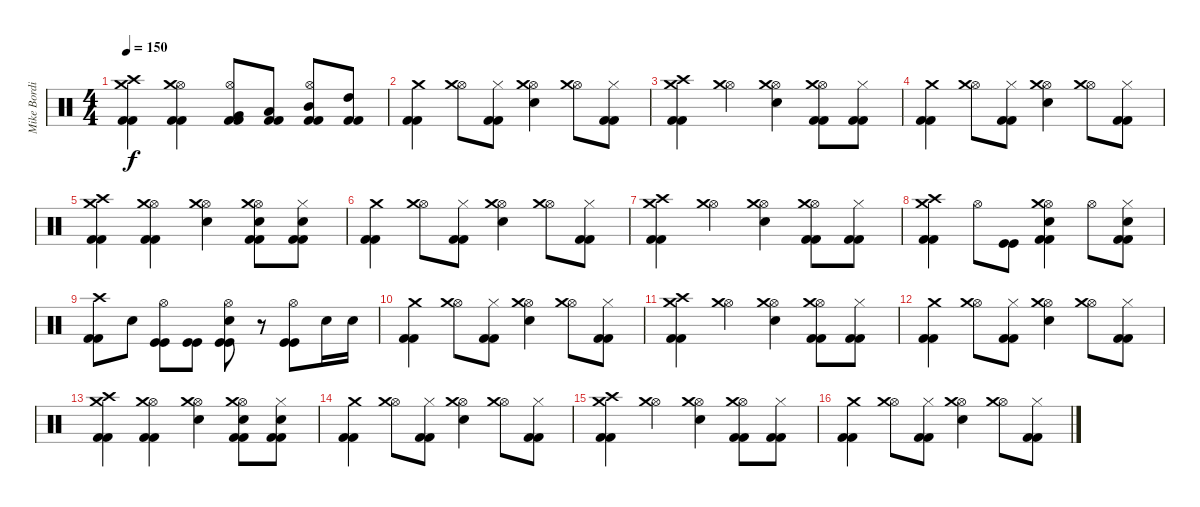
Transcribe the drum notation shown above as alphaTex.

\track ("Mike Bordin" "Mike Bordi") {instrument percussion}
\staff {score}
\articulation defaults
\ts (4 4)
\tempo 150
\clef neutral
\ks c
("Crash high (hit)" "Crash medium (hit)" "Kick (hit) 2" "Kick (hit) 2").4{dy f} ("Hi-Hat (open)" "Crash medium (hit)" "Kick (hit) 2" "Kick (hit) 2").4 ("Hi-Hat (open)" "Very Low Tom (hit)" "Kick (hit) 2" "Kick (hit) 2").8 ("Low Tom (hit)" "Kick (hit) 2" "Kick (hit) 2").8 ("Hi-Hat (open)" "Mid Tom (hit)" "Kick (hit) 2" "Kick (hit) 2").8 ("High Tom (hit)" "Kick (hit) 2" "Kick (hit) 2").8 |
("Crash medium (hit)" "Kick (hit) 2" "Kick (hit) 2").4 ("Hi-Hat (open)" "Crash medium (hit)").8 ("Hi-Hat (closed)" "Kick (hit) 2" "Kick (hit) 2").8 ("Hi-Hat (open)" "Crash medium (hit)" "Electric Snare (hit)").4 ("Hi-Hat (open)" "Crash medium (hit)").8 ("Hi-Hat (closed)" "Kick (hit) 2" "Kick (hit) 2").8 |
("Crash high (hit)" "Crash medium (hit)" "Kick (hit) 2" "Kick (hit) 2").4 ("Hi-Hat (open)" "Crash medium (hit)").4 ("Hi-Hat (open)" "Crash medium (hit)" "Electric Snare (hit)").4 ("Hi-Hat (open)" "Crash medium (hit)" "Kick (hit) 2" "Kick (hit) 2").8 ("Hi-Hat (closed)" "Kick (hit) 2" "Kick (hit) 2").8 |
("Crash medium (hit)" "Kick (hit) 2" "Kick (hit) 2").4 ("Hi-Hat (open)" "Crash medium (hit)").8 ("Hi-Hat (closed)" "Kick (hit) 2" "Kick (hit) 2").8 ("Hi-Hat (open)" "Crash medium (hit)" "Electric Snare (hit)").4 ("Hi-Hat (open)" "Crash medium (hit)").8 ("Hi-Hat (closed)" "Kick (hit) 2" "Kick (hit) 2").8 |
("Crash high (hit)" "Crash medium (hit)" "Kick (hit) 2" "Kick (hit) 2").4 ("Hi-Hat (open)" "Crash medium (hit)" "Kick (hit) 2" "Kick (hit) 2").4 ("Hi-Hat (open)" "Crash medium (hit)" "Electric Snare (hit)").4 ("Hi-Hat (open)" "Crash medium (hit)" "Electric Snare (hit)" "Kick (hit) 2" "Kick (hit) 2").8 ("Hi-Hat (closed)" "Electric Snare (hit)" "Kick (hit) 2" "Kick (hit) 2").8 |
("Crash medium (hit)" "Kick (hit) 2" "Kick (hit) 2").4 ("Hi-Hat (open)" "Crash medium (hit)").8 ("Hi-Hat (closed)" "Kick (hit) 2" "Kick (hit) 2").8 ("Hi-Hat (open)" "Crash medium (hit)" "Electric Snare (hit)").4 ("Hi-Hat (open)" "Crash medium (hit)").8 ("Hi-Hat (closed)" "Kick (hit) 2" "Kick (hit) 2").8 |
("Crash high (hit)" "Crash medium (hit)" "Kick (hit) 2" "Kick (hit) 2").4 ("Hi-Hat (open)" "Crash medium (hit)").4 ("Hi-Hat (open)" "Crash medium (hit)" "Electric Snare (hit)").4 ("Hi-Hat (open)" "Crash medium (hit)" "Kick (hit) 2" "Kick (hit) 2").8 ("Hi-Hat (closed)" "Kick (hit) 2" "Kick (hit) 2").8 |
("Crash high (hit)" "Crash medium (hit)" "Kick (hit) 2" "Kick (hit) 2").4 "Hi-Hat (open)".8 ("Kick (hit)" "Kick (hit)").8 ("Hi-Hat (open)" "Crash medium (hit)" "Electric Snare (hit)" "Kick (hit) 2" "Kick (hit) 2").4 "Hi-Hat (open)".8 ("Hi-Hat (closed)" "Electric Snare (hit)" "Kick (hit) 2" "Kick (hit) 2").8 |
("Crash high (hit)" "Kick (hit) 2" "Kick (hit) 2").8 "Electric Snare (hit)".8 ("Hi-Hat (open)" "Kick (hit)" "Kick (hit)").8 ("Kick (hit)" "Kick (hit)").8 ("Hi-Hat (open)" "Electric Snare (hit)" "Kick (hit)" "Kick (hit)").8 r.8 ("Hi-Hat (open)" "Kick (hit)" "Kick (hit)").8 "Electric Snare (hit)".16 "Electric Snare (hit)".16 |
("Crash medium (hit)" "Kick (hit) 2" "Kick (hit) 2").4 ("Hi-Hat (open)" "Crash medium (hit)").8 ("Hi-Hat (closed)" "Kick (hit) 2" "Kick (hit) 2").8 ("Hi-Hat (open)" "Crash medium (hit)" "Electric Snare (hit)").4 ("Hi-Hat (open)" "Crash medium (hit)").8 ("Hi-Hat (closed)" "Kick (hit) 2" "Kick (hit) 2").8 |
("Crash high (hit)" "Crash medium (hit)" "Kick (hit) 2" "Kick (hit) 2").4 ("Hi-Hat (open)" "Crash medium (hit)").4 ("Hi-Hat (open)" "Crash medium (hit)" "Electric Snare (hit)").4 ("Hi-Hat (open)" "Crash medium (hit)" "Kick (hit) 2" "Kick (hit) 2").8 ("Hi-Hat (closed)" "Kick (hit) 2" "Kick (hit) 2").8 |
("Crash medium (hit)" "Kick (hit) 2" "Kick (hit) 2").4 ("Hi-Hat (open)" "Crash medium (hit)").8 ("Hi-Hat (closed)" "Kick (hit) 2" "Kick (hit) 2").8 ("Hi-Hat (open)" "Crash medium (hit)" "Electric Snare (hit)").4 ("Hi-Hat (open)" "Crash medium (hit)").8 ("Hi-Hat (closed)" "Kick (hit) 2" "Kick (hit) 2").8 |
("Crash high (hit)" "Crash medium (hit)" "Kick (hit) 2" "Kick (hit) 2").4 ("Hi-Hat (open)" "Crash medium (hit)" "Kick (hit) 2" "Kick (hit) 2").4 ("Hi-Hat (open)" "Crash medium (hit)" "Electric Snare (hit)").4 ("Hi-Hat (open)" "Crash medium (hit)" "Electric Snare (hit)" "Kick (hit) 2" "Kick (hit) 2").8 ("Hi-Hat (closed)" "Electric Snare (hit)" "Kick (hit) 2" "Kick (hit) 2").8 |
("Crash medium (hit)" "Kick (hit) 2" "Kick (hit) 2").4 ("Hi-Hat (open)" "Crash medium (hit)").8 ("Hi-Hat (closed)" "Kick (hit) 2" "Kick (hit) 2").8 ("Hi-Hat (open)" "Crash medium (hit)" "Electric Snare (hit)").4 ("Hi-Hat (open)" "Crash medium (hit)").8 ("Hi-Hat (closed)" "Kick (hit) 2" "Kick (hit) 2").8 |
("Crash high (hit)" "Crash medium (hit)" "Kick (hit) 2" "Kick (hit) 2").4 ("Hi-Hat (open)" "Crash medium (hit)").4 ("Hi-Hat (open)" "Crash medium (hit)" "Electric Snare (hit)").4 ("Hi-Hat (open)" "Crash medium (hit)" "Kick (hit) 2" "Kick (hit) 2").8 ("Hi-Hat (closed)" "Kick (hit) 2" "Kick (hit) 2").8 |
("Crash medium (hit)" "Kick (hit) 2" "Kick (hit) 2").4 ("Hi-Hat (open)" "Crash medium (hit)").8 ("Hi-Hat (closed)" "Kick (hit) 2" "Kick (hit) 2").8 ("Hi-Hat (open)" "Crash medium (hit)" "Electric Snare (hit)").4 ("Hi-Hat (open)" "Crash medium (hit)").8 ("Hi-Hat (closed)" "Kick (hit) 2" "Kick (hit) 2").8
